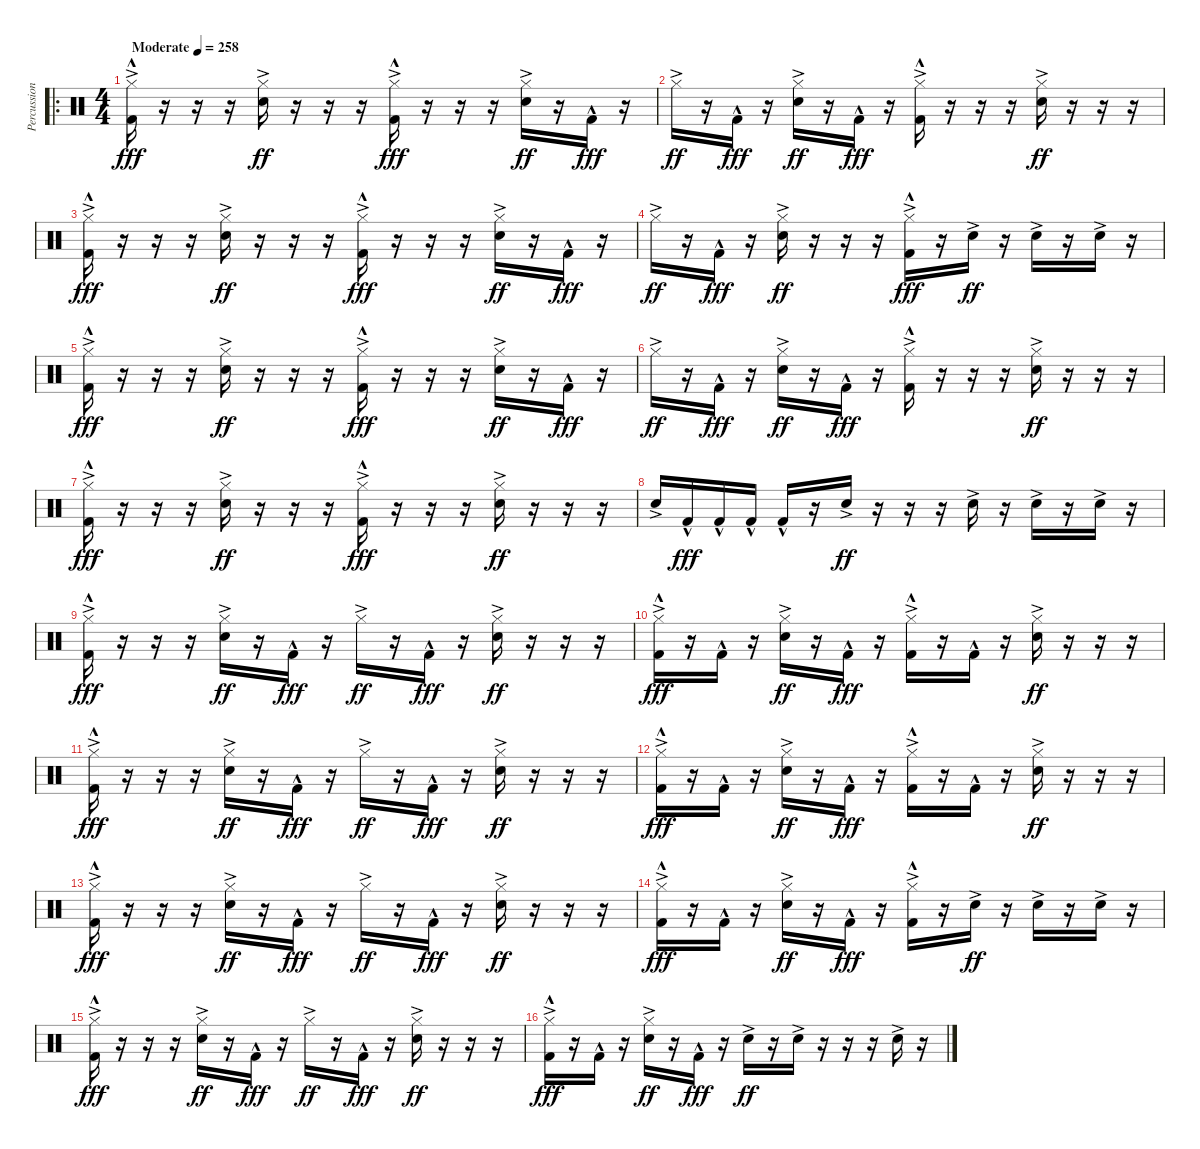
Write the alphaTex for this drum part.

\track ("Percussion" "Percussion") {instrument percussion bank 2}
\staff {score}
\articulation defaults
\ro
\ts (4 4)
\tempo (258 "Moderate")
\clef neutral
\ks c
("Hi-Hat (closed)"{ac} "Kick (hit) 2"{hac}).16{dy fff} r.16 r.16 r.16 ("Hi-Hat (closed)"{ac} "Snare (hit) 2"{ac}).16{dy ff} r.16 r.16 r.16 ("Hi-Hat (closed)"{ac} "Kick (hit) 2"{hac}).16{dy fff} r.16 r.16 r.16 ("Hi-Hat (closed)"{ac} "Snare (hit) 2"{ac}).16{dy ff} r.16 "Kick (hit) 2"{hac}.16{dy fff} r.16 |
"Hi-Hat (closed)"{ac}.16{dy ff} r.16 "Kick (hit) 2"{hac}.16{dy fff} r.16 ("Hi-Hat (closed)"{ac} "Snare (hit) 2"{ac}).16{dy ff} r.16 "Kick (hit) 2"{hac}.16{dy fff} r.16 ("Hi-Hat (closed)"{ac} "Kick (hit) 2"{hac}).16 r.16 r.16 r.16 ("Hi-Hat (closed)"{ac} "Snare (hit) 2"{ac}).16{dy ff} r.16 r.16 r.16 |
("Hi-Hat (closed)"{ac} "Kick (hit) 2"{hac}).16{dy fff} r.16 r.16 r.16 ("Hi-Hat (closed)"{ac} "Snare (hit) 2"{ac}).16{dy ff} r.16 r.16 r.16 ("Hi-Hat (closed)"{ac} "Kick (hit) 2"{hac}).16{dy fff} r.16 r.16 r.16 ("Hi-Hat (closed)"{ac} "Snare (hit) 2"{ac}).16{dy ff} r.16 "Kick (hit) 2"{hac}.16{dy fff} r.16 |
"Hi-Hat (closed)"{ac}.16{dy ff} r.16 "Kick (hit) 2"{hac}.16{dy fff} r.16 ("Hi-Hat (closed)"{ac} "Snare (hit) 2"{ac}).16{dy ff} r.16 r.16 r.16 ("Hi-Hat (closed)"{ac} "Kick (hit) 2"{hac}).16{dy fff} r.16 "Snare (hit) 2"{ac}.16{dy ff} r.16 "Snare (hit) 2"{ac}.16 r.16 "Snare (hit) 2"{ac}.16 r.16 |
("Hi-Hat (closed)"{ac} "Kick (hit) 2"{hac}).16{dy fff} r.16 r.16 r.16 ("Hi-Hat (closed)"{ac} "Snare (hit) 2"{ac}).16{dy ff} r.16 r.16 r.16 ("Hi-Hat (closed)"{ac} "Kick (hit) 2"{hac}).16{dy fff} r.16 r.16 r.16 ("Hi-Hat (closed)"{ac} "Snare (hit) 2"{ac}).16{dy ff} r.16 "Kick (hit) 2"{hac}.16{dy fff} r.16 |
"Hi-Hat (closed)"{ac}.16{dy ff} r.16 "Kick (hit) 2"{hac}.16{dy fff} r.16 ("Hi-Hat (closed)"{ac} "Snare (hit) 2"{ac}).16{dy ff} r.16 "Kick (hit) 2"{hac}.16{dy fff} r.16 ("Hi-Hat (closed)"{ac} "Kick (hit) 2"{hac}).16 r.16 r.16 r.16 ("Hi-Hat (closed)"{ac} "Snare (hit) 2"{ac}).16{dy ff} r.16 r.16 r.16 |
("Hi-Hat (closed)"{ac} "Kick (hit) 2"{hac}).16{dy fff} r.16 r.16 r.16 ("Hi-Hat (closed)"{ac} "Snare (hit) 2"{ac}).16{dy ff} r.16 r.16 r.16 ("Hi-Hat (closed)"{ac} "Kick (hit) 2"{hac}).16{dy fff} r.16 r.16 r.16 ("Hi-Hat (closed)"{ac} "Snare (hit) 2"{ac}).16{dy ff} r.16 r.16 r.16 |
"Snare (hit) 2"{ac}.16 "Kick (hit) 2"{hac}.16{dy fff} "Kick (hit) 2"{hac}.16 "Kick (hit) 2"{hac}.16 "Kick (hit) 2"{hac}.16 r.16 "Snare (hit) 2"{ac}.16{dy ff} r.16 r.16 r.16 "Snare (hit) 2"{ac}.16 r.16 "Snare (hit) 2"{ac}.16 r.16 "Snare (hit) 2"{ac}.16 r.16 |
("Hi-Hat (closed)"{ac} "Kick (hit) 2"{hac}).16{dy fff} r.16 r.16 r.16 ("Hi-Hat (closed)"{ac} "Snare (hit) 2"{ac}).16{dy ff} r.16 "Kick (hit) 2"{hac}.16{dy fff} r.16 "Hi-Hat (closed)"{ac}.16{dy ff} r.16 "Kick (hit) 2"{hac}.16{dy fff} r.16 ("Hi-Hat (closed)"{ac} "Snare (hit) 2"{ac}).16{dy ff} r.16 r.16 r.16 |
("Hi-Hat (closed)"{ac} "Kick (hit) 2"{hac}).16{dy fff} r.16 "Kick (hit) 2"{hac}.16 r.16 ("Hi-Hat (closed)"{ac} "Snare (hit) 2"{ac}).16{dy ff} r.16 "Kick (hit) 2"{hac}.16{dy fff} r.16 ("Hi-Hat (closed)"{ac} "Kick (hit) 2"{hac}).16 r.16 "Kick (hit) 2"{hac}.16 r.16 ("Hi-Hat (closed)"{ac} "Snare (hit) 2"{ac}).16{dy ff} r.16 r.16 r.16 |
("Hi-Hat (closed)"{ac} "Kick (hit) 2"{hac}).16{dy fff} r.16 r.16 r.16 ("Hi-Hat (closed)"{ac} "Snare (hit) 2"{ac}).16{dy ff} r.16 "Kick (hit) 2"{hac}.16{dy fff} r.16 "Hi-Hat (closed)"{ac}.16{dy ff} r.16 "Kick (hit) 2"{hac}.16{dy fff} r.16 ("Hi-Hat (closed)"{ac} "Snare (hit) 2"{ac}).16{dy ff} r.16 r.16 r.16 |
("Hi-Hat (closed)"{ac} "Kick (hit) 2"{hac}).16{dy fff} r.16 "Kick (hit) 2"{hac}.16 r.16 ("Hi-Hat (closed)"{ac} "Snare (hit) 2"{ac}).16{dy ff} r.16 "Kick (hit) 2"{hac}.16{dy fff} r.16 ("Hi-Hat (closed)"{ac} "Kick (hit) 2"{hac}).16 r.16 "Kick (hit) 2"{hac}.16 r.16 ("Hi-Hat (closed)"{ac} "Snare (hit) 2"{ac}).16{dy ff} r.16 r.16 r.16 |
("Hi-Hat (closed)"{ac} "Kick (hit) 2"{hac}).16{dy fff} r.16 r.16 r.16 ("Hi-Hat (closed)"{ac} "Snare (hit) 2"{ac}).16{dy ff} r.16 "Kick (hit) 2"{hac}.16{dy fff} r.16 "Hi-Hat (closed)"{ac}.16{dy ff} r.16 "Kick (hit) 2"{hac}.16{dy fff} r.16 ("Hi-Hat (closed)"{ac} "Snare (hit) 2"{ac}).16{dy ff} r.16 r.16 r.16 |
("Hi-Hat (closed)"{ac} "Kick (hit) 2"{hac}).16{dy fff} r.16 "Kick (hit) 2"{hac}.16 r.16 ("Hi-Hat (closed)"{ac} "Snare (hit) 2"{ac}).16{dy ff} r.16 "Kick (hit) 2"{hac}.16{dy fff} r.16 ("Hi-Hat (closed)"{ac} "Kick (hit) 2"{hac}).16 r.16 "Snare (hit) 2"{ac}.16{dy ff} r.16 "Snare (hit) 2"{ac}.16 r.16 "Snare (hit) 2"{ac}.16 r.16 |
("Hi-Hat (closed)"{ac} "Kick (hit) 2"{hac}).16{dy fff} r.16 r.16 r.16 ("Hi-Hat (closed)"{ac} "Snare (hit) 2"{ac}).16{dy ff} r.16 "Kick (hit) 2"{hac}.16{dy fff} r.16 "Hi-Hat (closed)"{ac}.16{dy ff} r.16 "Kick (hit) 2"{hac}.16{dy fff} r.16 ("Hi-Hat (closed)"{ac} "Snare (hit) 2"{ac}).16{dy ff} r.16 r.16 r.16 |
("Hi-Hat (closed)"{ac} "Kick (hit) 2"{hac}).16{dy fff} r.16 "Kick (hit) 2"{hac}.16 r.16 ("Hi-Hat (closed)"{ac} "Snare (hit) 2"{ac}).16{dy ff} r.16 "Kick (hit) 2"{hac}.16{dy fff} r.16 "Snare (hit) 2"{ac}.16{dy ff} r.16 "Snare (hit) 2"{ac}.16 r.16 r.16 r.16 "Snare (hit) 2"{ac}.16 r.16
